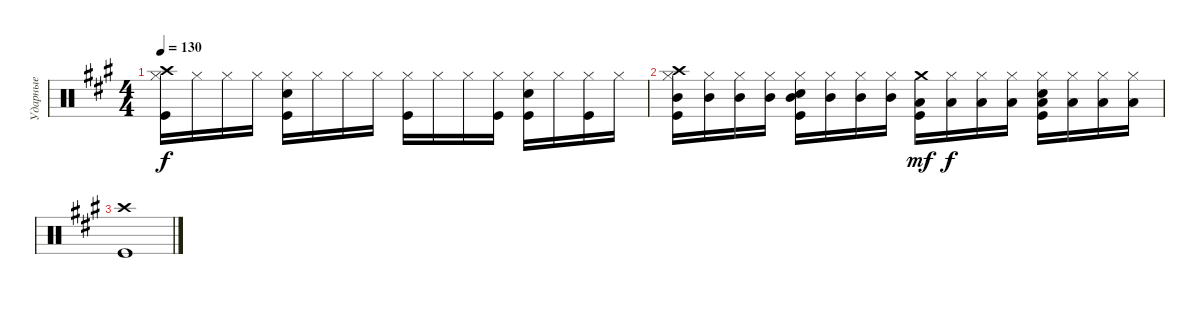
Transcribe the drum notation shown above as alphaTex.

\track ("Ударные" "Ударные") {instrument percussion}
\staff {score}
\articulation defaults
\ts (4 4)
\tempo 130
\clef neutral
\ks f#minor
("Hi-Hat (closed)" "Kick (hit)" "Crash high (hit)").16{dy f} "Hi-Hat (closed)".16 "Hi-Hat (closed)".16 "Hi-Hat (closed)".16 ("Hi-Hat (closed)" "Snare (hit) 2" "Kick (hit)").16 "Hi-Hat (closed)".16 "Hi-Hat (closed)".16 "Hi-Hat (closed)".16 ("Hi-Hat (closed)" "Kick (hit)").16 "Hi-Hat (closed)".16 "Hi-Hat (closed)".16 ("Hi-Hat (closed)" "Kick (hit)").16 ("Hi-Hat (closed)" "Snare (hit) 2" "Kick (hit)").16 "Hi-Hat (closed)".16 ("Hi-Hat (closed)" "Kick (hit)").16 "Hi-Hat (closed)".16 |
("Hi-Hat (closed)" "Kick (hit)" "Mid Tom (hit)" "Crash high (hit)").16 ("Hi-Hat (closed)" "Mid Tom (hit)").16 ("Hi-Hat (closed)" "Mid Tom (hit)").16 ("Hi-Hat (closed)" "Mid Tom (hit)").16 ("Hi-Hat (closed)" "Snare (hit) 2" "Kick (hit)" "Mid Tom (hit)").16 ("Hi-Hat (closed)" "Mid Tom (hit)").16 ("Hi-Hat (closed)" "Mid Tom (hit)").16 ("Hi-Hat (closed)" "Mid Tom (hit)").16 ("Crash medium (hit)" "Kick (hit)" "Low Tom (hit)").16{dy mf} ("Hi-Hat (closed)" "Low Tom (hit)").16{dy f} ("Hi-Hat (closed)" "Low Tom (hit)").16 ("Hi-Hat (closed)" "Low Tom (hit)").16 ("Hi-Hat (closed)" "Snare (hit) 2" "Kick (hit)" "Low Tom (hit)").16 ("Hi-Hat (closed)" "Low Tom (hit)").16 ("Hi-Hat (closed)" "Low Tom (hit)").16 ("Hi-Hat (closed)" "Low Tom (hit)").16 |
("Kick (hit)" "Crash high (hit)").1
